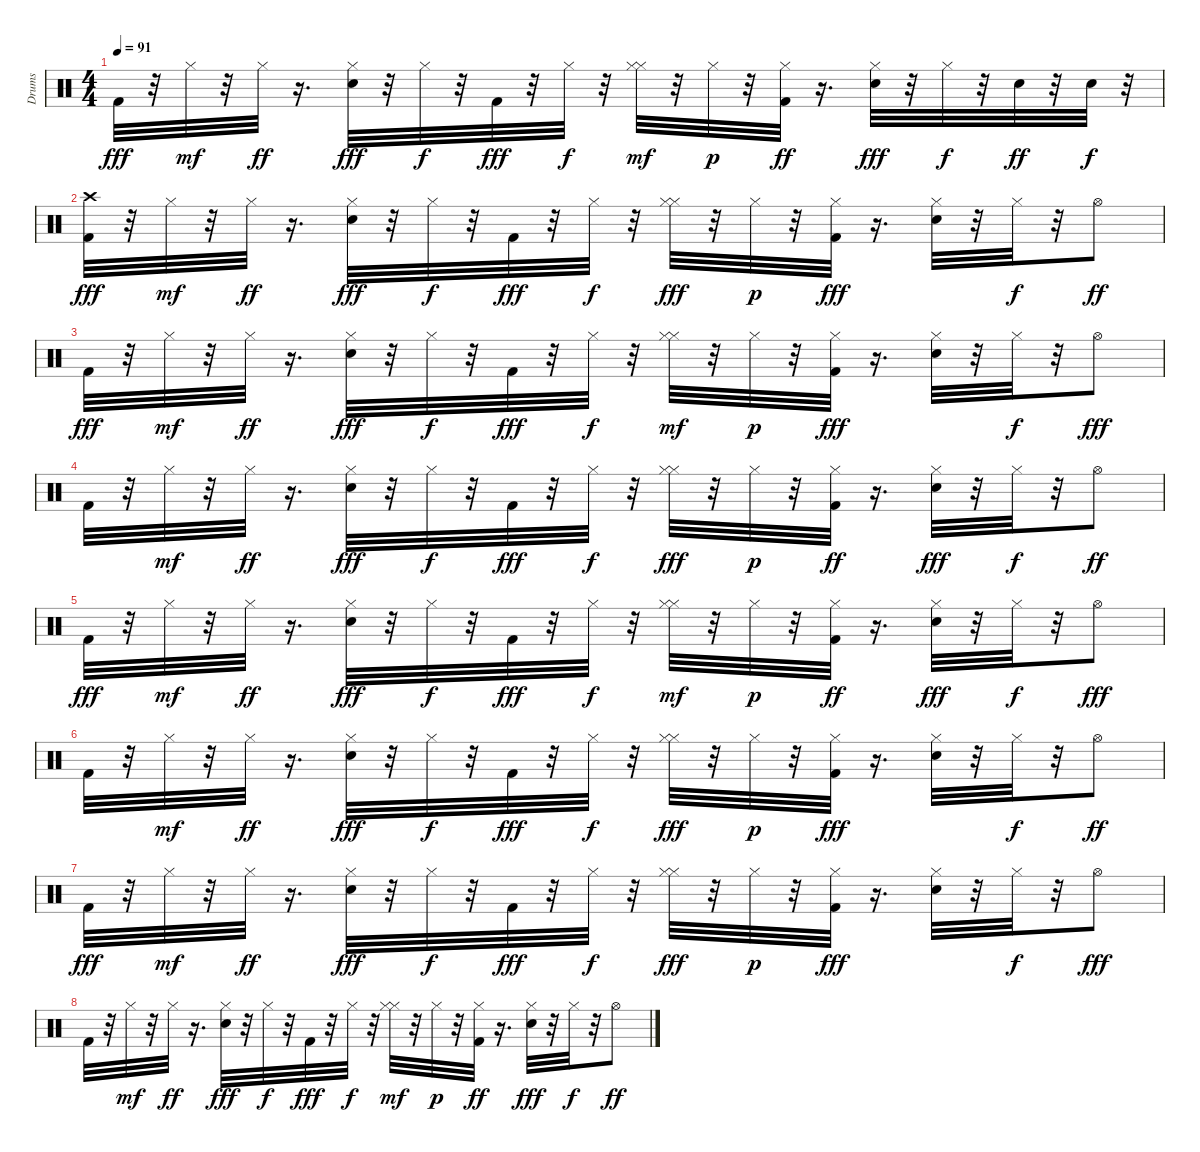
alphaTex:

\track ("Drums" "Drums") {instrument percussion}
\staff {score}
\articulation defaults
\ts (4 4)
\tempo 91
\clef neutral
\ks c "Kick (hit) 2".32{dy fff}
r.32 "Hi-Hat (closed)".32{dy mf} r.32 "Hi-Hat (closed)".32{dy ff} r.16{d} ("Hi-Hat (closed)" "Snare (hit) 2").32{dy fff} r.32 "Hi-Hat (closed)".32{dy f} r.32 "Kick (hit) 2".32{dy fff} r.32 "Hi-Hat (closed)".32{dy f} r.32 ("Hi-Hat (closed)" "Hi-Hat (closed)").32{dy mf} r.32 "Hi-Hat (closed)".32{dy p} r.32 ("Kick (hit) 2" "Hi-Hat (closed)").32{dy ff} r.16{d} ("Snare (hit) 2" "Hi-Hat (closed)").32{dy fff} r.32 "Hi-Hat (closed)".32{dy f} r.32 "Snare (hit) 2".32{dy ff} r.32 "Snare (hit) 2".32{dy f} r.32 |
("Crash high (hit)" "Kick (hit) 2").32{dy fff} r.32 "Hi-Hat (closed)".32{dy mf} r.32 "Hi-Hat (closed)".32{dy ff} r.16{d} ("Hi-Hat (closed)" "Snare (hit) 2").32{dy fff} r.32 "Hi-Hat (closed)".32{dy f} r.32 "Kick (hit) 2".32{dy fff} r.32 "Hi-Hat (closed)".32{dy f} r.32 ("Hi-Hat (closed)" "Hi-Hat (closed)").32{dy fff} r.32 "Hi-Hat (closed)".32{dy p} r.32 ("Hi-Hat (closed)" "Kick (hit) 2").32{dy fff} r.16{d} ("Snare (hit) 2" "Hi-Hat (closed)").32 r.32 "Hi-Hat (closed)".32{dy f} r.32 "Hi-Hat (open)".8{dy ff} |
"Kick (hit) 2".32{dy fff} r.32 "Hi-Hat (closed)".32{dy mf} r.32 "Hi-Hat (closed)".32{dy ff} r.16{d} ("Snare (hit) 2" "Hi-Hat (closed)").32{dy fff} r.32 "Hi-Hat (closed)".32{dy f} r.32 "Kick (hit) 2".32{dy fff} r.32 "Hi-Hat (closed)".32{dy f} r.32 ("Hi-Hat (closed)" "Hi-Hat (closed)").32{dy mf} r.32 "Hi-Hat (closed)".32{dy p} r.32 ("Hi-Hat (closed)" "Kick (hit) 2").32{dy fff} r.16{d} ("Snare (hit) 2" "Hi-Hat (closed)").32 r.32 "Hi-Hat (closed)".32{dy f} r.32 "Hi-Hat (open)".8{dy fff} |
"Kick (hit) 2".32 r.32 "Hi-Hat (closed)".32{dy mf} r.32 "Hi-Hat (closed)".32{dy ff} r.16{d} ("Hi-Hat (closed)" "Snare (hit) 2").32{dy fff} r.32 "Hi-Hat (closed)".32{dy f} r.32 "Kick (hit) 2".32{dy fff} r.32 "Hi-Hat (closed)".32{dy f} r.32 ("Hi-Hat (closed)" "Hi-Hat (closed)").32{dy fff} r.32 "Hi-Hat (closed)".32{dy p} r.32 ("Kick (hit) 2" "Hi-Hat (closed)").32{dy ff} r.16{d} ("Hi-Hat (closed)" "Snare (hit) 2").32{dy fff} r.32 "Hi-Hat (closed)".32{dy f} r.32 "Hi-Hat (open)".8{dy ff} |
"Kick (hit) 2".32{dy fff} r.32 "Hi-Hat (closed)".32{dy mf} r.32 "Hi-Hat (closed)".32{dy ff} r.16{d} ("Snare (hit) 2" "Hi-Hat (closed)").32{dy fff} r.32 "Hi-Hat (closed)".32{dy f} r.32 "Kick (hit) 2".32{dy fff} r.32 "Hi-Hat (closed)".32{dy f} r.32 ("Hi-Hat (closed)" "Hi-Hat (closed)").32{dy mf} r.32 "Hi-Hat (closed)".32{dy p} r.32 ("Kick (hit) 2" "Hi-Hat (closed)").32{dy ff} r.16{d} ("Snare (hit) 2" "Hi-Hat (closed)").32{dy fff} r.32 "Hi-Hat (closed)".32{dy f} r.32 "Hi-Hat (open)".8{dy fff} |
"Kick (hit) 2".32 r.32 "Hi-Hat (closed)".32{dy mf} r.32 "Hi-Hat (closed)".32{dy ff} r.16{d} ("Snare (hit) 2" "Hi-Hat (closed)").32{dy fff} r.32 "Hi-Hat (closed)".32{dy f} r.32 "Kick (hit) 2".32{dy fff} r.32 "Hi-Hat (closed)".32{dy f} r.32 ("Hi-Hat (closed)" "Hi-Hat (closed)").32{dy fff} r.32 "Hi-Hat (closed)".32{dy p} r.32 ("Hi-Hat (closed)" "Kick (hit) 2").32{dy fff} r.16{d} ("Snare (hit) 2" "Hi-Hat (closed)").32 r.32 "Hi-Hat (closed)".32{dy f} r.32 "Hi-Hat (open)".8{dy ff} |
"Kick (hit) 2".32{dy fff} r.32 "Hi-Hat (closed)".32{dy mf} r.32 "Hi-Hat (closed)".32{dy ff} r.16{d} ("Snare (hit) 2" "Hi-Hat (closed)").32{dy fff} r.32 "Hi-Hat (closed)".32{dy f} r.32 "Kick (hit) 2".32{dy fff} r.32 "Hi-Hat (closed)".32{dy f} r.32 ("Hi-Hat (closed)" "Hi-Hat (closed)").32{dy fff} r.32 "Hi-Hat (closed)".32{dy p} r.32 ("Hi-Hat (closed)" "Kick (hit) 2").32{dy fff} r.16{d} ("Snare (hit) 2" "Hi-Hat (closed)").32 r.32 "Hi-Hat (closed)".32{dy f} r.32 "Hi-Hat (open)".8{dy fff} |
"Kick (hit) 2".32 r.32 "Hi-Hat (closed)".32{dy mf} r.32 "Hi-Hat (closed)".32{dy ff} r.16{d} ("Snare (hit) 2" "Hi-Hat (closed)").32{dy fff} r.32 "Hi-Hat (closed)".32{dy f} r.32 "Kick (hit) 2".32{dy fff} r.32 "Hi-Hat (closed)".32{dy f} r.32 ("Hi-Hat (closed)" "Hi-Hat (closed)").32{dy mf} r.32 "Hi-Hat (closed)".32{dy p} r.32 ("Kick (hit) 2" "Hi-Hat (closed)").32{dy ff} r.16{d} ("Snare (hit) 2" "Hi-Hat (closed)").32{dy fff} r.32 "Hi-Hat (closed)".32{dy f} r.32 "Hi-Hat (open)".8{dy ff}
